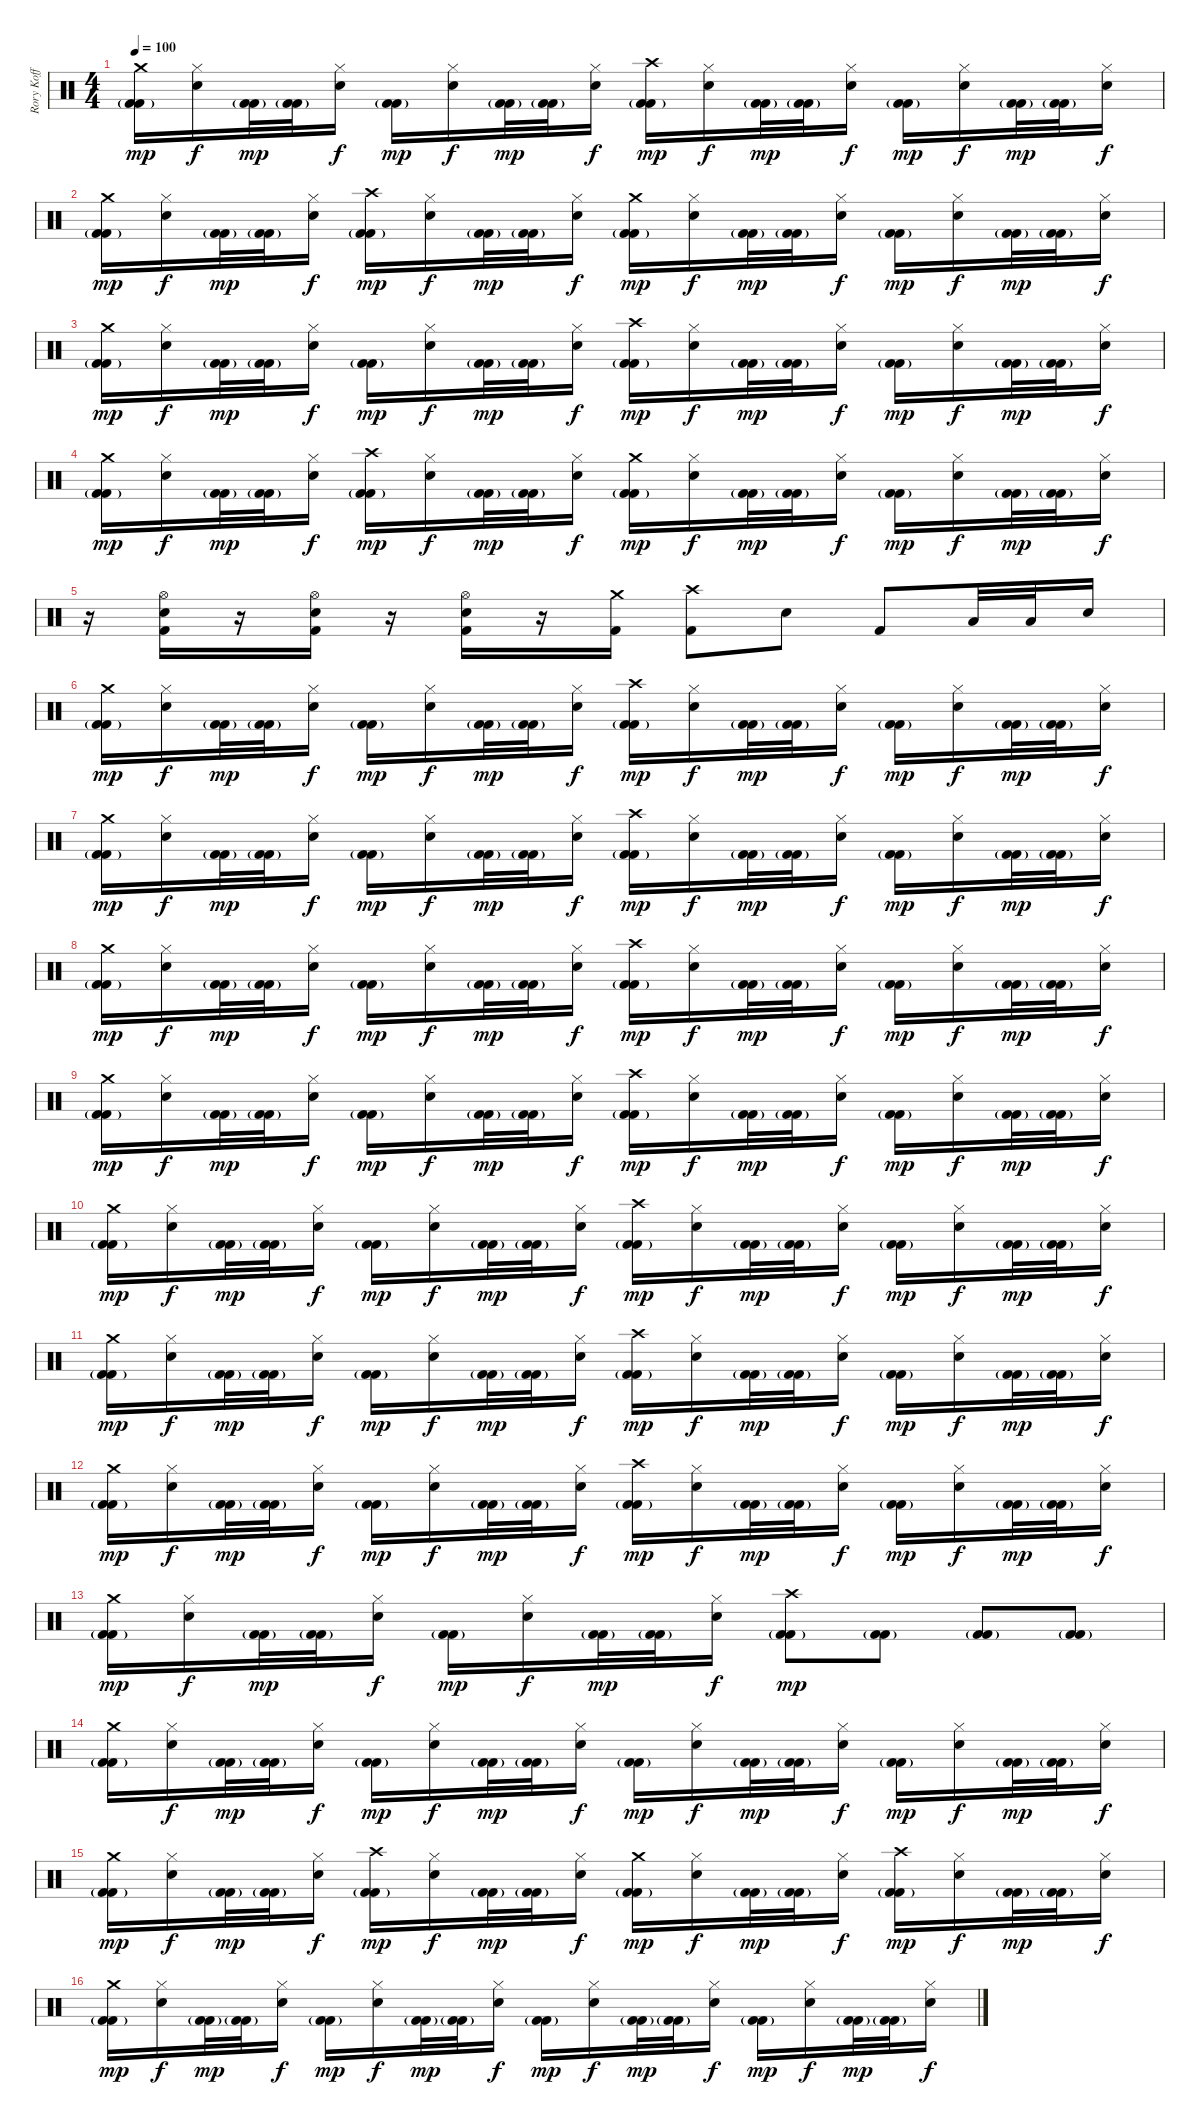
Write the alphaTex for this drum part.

\track ("Rory Koff" "Rory Koff") {instrument percussion}
\staff {score}
\articulation defaults
\ts (4 4)
\tempo 100
\clef neutral
\ks c
("Crash medium (hit)" "Kick (hit) 2"{g} "Kick (hit) 2").16{dy mp} ("Hi-Hat (closed)" "Snare (hit) 2").16{dy f} ("Kick (hit) 2"{g} "Kick (hit) 2").32{dy mp} ("Kick (hit) 2"{g} "Kick (hit) 2").32 ("Hi-Hat (closed)" "Snare (hit) 2").16{dy f} ("Kick (hit) 2"{g} "Kick (hit) 2").16{dy mp} ("Hi-Hat (closed)" "Snare (hit) 2").16{dy f} ("Kick (hit) 2"{g} "Kick (hit) 2").32{dy mp} ("Kick (hit) 2"{g} "Kick (hit) 2").32 ("Hi-Hat (closed)" "Snare (hit) 2").16{dy f} ("Crash high (hit)" "Kick (hit) 2"{g} "Kick (hit) 2").16{dy mp} ("Hi-Hat (closed)" "Snare (hit) 2").16{dy f} ("Kick (hit) 2"{g} "Kick (hit) 2").32{dy mp} ("Kick (hit) 2"{g} "Kick (hit) 2").32 ("Hi-Hat (closed)" "Snare (hit) 2").16{dy f} ("Kick (hit) 2"{g} "Kick (hit) 2").16{dy mp} ("Hi-Hat (closed)" "Snare (hit) 2").16{dy f} ("Kick (hit) 2"{g} "Kick (hit) 2").32{dy mp} ("Kick (hit) 2"{g} "Kick (hit) 2").32 ("Hi-Hat (closed)" "Snare (hit) 2").16{dy f} |
("Crash medium (hit)" "Kick (hit) 2"{g} "Kick (hit) 2").16{dy mp} ("Hi-Hat (closed)" "Snare (hit) 2").16{dy f} ("Kick (hit) 2"{g} "Kick (hit) 2").32{dy mp} ("Kick (hit) 2"{g} "Kick (hit) 2").32 ("Hi-Hat (closed)" "Snare (hit) 2").16{dy f} ("Crash high (hit)" "Kick (hit) 2"{g} "Kick (hit) 2").16{dy mp} ("Hi-Hat (closed)" "Snare (hit) 2").16{dy f} ("Kick (hit) 2"{g} "Kick (hit) 2").32{dy mp} ("Kick (hit) 2"{g} "Kick (hit) 2").32 ("Hi-Hat (closed)" "Snare (hit) 2").16{dy f} ("Crash medium (hit)" "Kick (hit) 2"{g} "Kick (hit) 2").16{dy mp} ("Hi-Hat (closed)" "Snare (hit) 2").16{dy f} ("Kick (hit) 2"{g} "Kick (hit) 2").32{dy mp} ("Kick (hit) 2"{g} "Kick (hit) 2").32 ("Hi-Hat (closed)" "Snare (hit) 2").16{dy f} ("Kick (hit) 2"{g} "Kick (hit) 2").16{dy mp} ("Hi-Hat (closed)" "Snare (hit) 2").16{dy f} ("Kick (hit) 2"{g} "Kick (hit) 2").32{dy mp} ("Kick (hit) 2"{g} "Kick (hit) 2").32 ("Hi-Hat (closed)" "Snare (hit) 2").16{dy f} |
("Crash medium (hit)" "Kick (hit) 2"{g} "Kick (hit) 2").16{dy mp} ("Hi-Hat (closed)" "Snare (hit) 2").16{dy f} ("Kick (hit) 2"{g} "Kick (hit) 2").32{dy mp} ("Kick (hit) 2"{g} "Kick (hit) 2").32 ("Hi-Hat (closed)" "Snare (hit) 2").16{dy f} ("Kick (hit) 2"{g} "Kick (hit) 2").16{dy mp} ("Hi-Hat (closed)" "Snare (hit) 2").16{dy f} ("Kick (hit) 2"{g} "Kick (hit) 2").32{dy mp} ("Kick (hit) 2"{g} "Kick (hit) 2").32 ("Hi-Hat (closed)" "Snare (hit) 2").16{dy f} ("Crash high (hit)" "Kick (hit) 2"{g} "Kick (hit) 2").16{dy mp} ("Hi-Hat (closed)" "Snare (hit) 2").16{dy f} ("Kick (hit) 2"{g} "Kick (hit) 2").32{dy mp} ("Kick (hit) 2"{g} "Kick (hit) 2").32 ("Hi-Hat (closed)" "Snare (hit) 2").16{dy f} ("Kick (hit) 2"{g} "Kick (hit) 2").16{dy mp} ("Hi-Hat (closed)" "Snare (hit) 2").16{dy f} ("Kick (hit) 2"{g} "Kick (hit) 2").32{dy mp} ("Kick (hit) 2"{g} "Kick (hit) 2").32 ("Hi-Hat (closed)" "Snare (hit) 2").16{dy f} |
("Crash medium (hit)" "Kick (hit) 2"{g} "Kick (hit) 2").16{dy mp} ("Hi-Hat (closed)" "Snare (hit) 2").16{dy f} ("Kick (hit) 2"{g} "Kick (hit) 2").32{dy mp} ("Kick (hit) 2"{g} "Kick (hit) 2").32 ("Hi-Hat (closed)" "Snare (hit) 2").16{dy f} ("Crash high (hit)" "Kick (hit) 2"{g} "Kick (hit) 2").16{dy mp} ("Hi-Hat (closed)" "Snare (hit) 2").16{dy f} ("Kick (hit) 2"{g} "Kick (hit) 2").32{dy mp} ("Kick (hit) 2"{g} "Kick (hit) 2").32 ("Hi-Hat (closed)" "Snare (hit) 2").16{dy f} ("Crash medium (hit)" "Kick (hit) 2"{g} "Kick (hit) 2").16{dy mp} ("Hi-Hat (closed)" "Snare (hit) 2").16{dy f} ("Kick (hit) 2"{g} "Kick (hit) 2").32{dy mp} ("Kick (hit) 2"{g} "Kick (hit) 2").32 ("Hi-Hat (closed)" "Snare (hit) 2").16{dy f} ("Kick (hit) 2"{g} "Kick (hit) 2").16{dy mp} ("Hi-Hat (closed)" "Snare (hit) 2").16{dy f} ("Kick (hit) 2"{g} "Kick (hit) 2").32{dy mp} ("Kick (hit) 2"{g} "Kick (hit) 2").32 ("Hi-Hat (closed)" "Snare (hit) 2").16{dy f} |
r.16 ("Hi-Hat (open)" "Snare (hit) 2" "Kick (hit) 2").16 r.16 ("Hi-Hat (open)" "Snare (hit) 2" "Kick (hit) 2").16 r.16 ("Hi-Hat (open)" "Snare (hit) 2" "Kick (hit) 2").16 r.16 ("Crash medium (hit)" "Kick (hit) 2").16 ("Crash high (hit)" "Kick (hit) 2").8 "Snare (hit) 2".8 "Kick (hit) 2".8 "Low Tom (hit)".32 "Low Tom (hit)".32 "Snare (hit) 2".16 |
("Crash medium (hit)" "Kick (hit) 2"{g} "Kick (hit) 2").16{dy mp} ("Hi-Hat (closed)" "Snare (hit) 2").16{dy f} ("Kick (hit) 2"{g} "Kick (hit) 2").32{dy mp} ("Kick (hit) 2"{g} "Kick (hit) 2").32 ("Hi-Hat (closed)" "Snare (hit) 2").16{dy f} ("Kick (hit) 2"{g} "Kick (hit) 2").16{dy mp} ("Hi-Hat (closed)" "Snare (hit) 2").16{dy f} ("Kick (hit) 2"{g} "Kick (hit) 2").32{dy mp} ("Kick (hit) 2"{g} "Kick (hit) 2").32 ("Hi-Hat (closed)" "Snare (hit) 2").16{dy f} ("Crash high (hit)" "Kick (hit) 2"{g} "Kick (hit) 2").16{dy mp} ("Hi-Hat (closed)" "Snare (hit) 2").16{dy f} ("Kick (hit) 2"{g} "Kick (hit) 2").32{dy mp} ("Kick (hit) 2"{g} "Kick (hit) 2").32 ("Hi-Hat (closed)" "Snare (hit) 2").16{dy f} ("Kick (hit) 2"{g} "Kick (hit) 2").16{dy mp} ("Hi-Hat (closed)" "Snare (hit) 2").16{dy f} ("Kick (hit) 2"{g} "Kick (hit) 2").32{dy mp} ("Kick (hit) 2"{g} "Kick (hit) 2").32 ("Hi-Hat (closed)" "Snare (hit) 2").16{dy f} |
("Crash medium (hit)" "Kick (hit) 2"{g} "Kick (hit) 2").16{dy mp} ("Hi-Hat (closed)" "Snare (hit) 2").16{dy f} ("Kick (hit) 2"{g} "Kick (hit) 2").32{dy mp} ("Kick (hit) 2"{g} "Kick (hit) 2").32 ("Hi-Hat (closed)" "Snare (hit) 2").16{dy f} ("Kick (hit) 2"{g} "Kick (hit) 2").16{dy mp} ("Hi-Hat (closed)" "Snare (hit) 2").16{dy f} ("Kick (hit) 2"{g} "Kick (hit) 2").32{dy mp} ("Kick (hit) 2"{g} "Kick (hit) 2").32 ("Hi-Hat (closed)" "Snare (hit) 2").16{dy f} ("Crash high (hit)" "Kick (hit) 2"{g} "Kick (hit) 2").16{dy mp} ("Hi-Hat (closed)" "Snare (hit) 2").16{dy f} ("Kick (hit) 2"{g} "Kick (hit) 2").32{dy mp} ("Kick (hit) 2"{g} "Kick (hit) 2").32 ("Hi-Hat (closed)" "Snare (hit) 2").16{dy f} ("Kick (hit) 2"{g} "Kick (hit) 2").16{dy mp} ("Hi-Hat (closed)" "Snare (hit) 2").16{dy f} ("Kick (hit) 2"{g} "Kick (hit) 2").32{dy mp} ("Kick (hit) 2"{g} "Kick (hit) 2").32 ("Hi-Hat (closed)" "Snare (hit) 2").16{dy f} |
("Crash medium (hit)" "Kick (hit) 2"{g} "Kick (hit) 2").16{dy mp} ("Hi-Hat (closed)" "Snare (hit) 2").16{dy f} ("Kick (hit) 2"{g} "Kick (hit) 2").32{dy mp} ("Kick (hit) 2"{g} "Kick (hit) 2").32 ("Hi-Hat (closed)" "Snare (hit) 2").16{dy f} ("Kick (hit) 2"{g} "Kick (hit) 2").16{dy mp} ("Hi-Hat (closed)" "Snare (hit) 2").16{dy f} ("Kick (hit) 2"{g} "Kick (hit) 2").32{dy mp} ("Kick (hit) 2"{g} "Kick (hit) 2").32 ("Hi-Hat (closed)" "Snare (hit) 2").16{dy f} ("Crash high (hit)" "Kick (hit) 2"{g} "Kick (hit) 2").16{dy mp} ("Hi-Hat (closed)" "Snare (hit) 2").16{dy f} ("Kick (hit) 2"{g} "Kick (hit) 2").32{dy mp} ("Kick (hit) 2"{g} "Kick (hit) 2").32 ("Hi-Hat (closed)" "Snare (hit) 2").16{dy f} ("Kick (hit) 2"{g} "Kick (hit) 2").16{dy mp} ("Hi-Hat (closed)" "Snare (hit) 2").16{dy f} ("Kick (hit) 2"{g} "Kick (hit) 2").32{dy mp} ("Kick (hit) 2"{g} "Kick (hit) 2").32 ("Hi-Hat (closed)" "Snare (hit) 2").16{dy f} |
("Crash medium (hit)" "Kick (hit) 2"{g} "Kick (hit) 2").16{dy mp} ("Hi-Hat (closed)" "Snare (hit) 2").16{dy f} ("Kick (hit) 2"{g} "Kick (hit) 2").32{dy mp} ("Kick (hit) 2"{g} "Kick (hit) 2").32 ("Hi-Hat (closed)" "Snare (hit) 2").16{dy f} ("Kick (hit) 2"{g} "Kick (hit) 2").16{dy mp} ("Hi-Hat (closed)" "Snare (hit) 2").16{dy f} ("Kick (hit) 2"{g} "Kick (hit) 2").32{dy mp} ("Kick (hit) 2"{g} "Kick (hit) 2").32 ("Hi-Hat (closed)" "Snare (hit) 2").16{dy f} ("Crash high (hit)" "Kick (hit) 2"{g} "Kick (hit) 2").16{dy mp} ("Hi-Hat (closed)" "Snare (hit) 2").16{dy f} ("Kick (hit) 2"{g} "Kick (hit) 2").32{dy mp} ("Kick (hit) 2"{g} "Kick (hit) 2").32 ("Hi-Hat (closed)" "Snare (hit) 2").16{dy f} ("Kick (hit) 2"{g} "Kick (hit) 2").16{dy mp} ("Hi-Hat (closed)" "Snare (hit) 2").16{dy f} ("Kick (hit) 2"{g} "Kick (hit) 2").32{dy mp} ("Kick (hit) 2"{g} "Kick (hit) 2").32 ("Hi-Hat (closed)" "Snare (hit) 2").16{dy f} |
("Crash medium (hit)" "Kick (hit) 2"{g} "Kick (hit) 2").16{dy mp} ("Hi-Hat (closed)" "Snare (hit) 2").16{dy f} ("Kick (hit) 2"{g} "Kick (hit) 2").32{dy mp} ("Kick (hit) 2"{g} "Kick (hit) 2").32 ("Hi-Hat (closed)" "Snare (hit) 2").16{dy f} ("Kick (hit) 2"{g} "Kick (hit) 2").16{dy mp} ("Hi-Hat (closed)" "Snare (hit) 2").16{dy f} ("Kick (hit) 2"{g} "Kick (hit) 2").32{dy mp} ("Kick (hit) 2"{g} "Kick (hit) 2").32 ("Hi-Hat (closed)" "Snare (hit) 2").16{dy f} ("Crash high (hit)" "Kick (hit) 2"{g} "Kick (hit) 2").16{dy mp} ("Hi-Hat (closed)" "Snare (hit) 2").16{dy f} ("Kick (hit) 2"{g} "Kick (hit) 2").32{dy mp} ("Kick (hit) 2"{g} "Kick (hit) 2").32 ("Hi-Hat (closed)" "Snare (hit) 2").16{dy f} ("Kick (hit) 2"{g} "Kick (hit) 2").16{dy mp} ("Hi-Hat (closed)" "Snare (hit) 2").16{dy f} ("Kick (hit) 2"{g} "Kick (hit) 2").32{dy mp} ("Kick (hit) 2"{g} "Kick (hit) 2").32 ("Hi-Hat (closed)" "Snare (hit) 2").16{dy f} |
("Crash medium (hit)" "Kick (hit) 2"{g} "Kick (hit) 2").16{dy mp} ("Hi-Hat (closed)" "Snare (hit) 2").16{dy f} ("Kick (hit) 2"{g} "Kick (hit) 2").32{dy mp} ("Kick (hit) 2"{g} "Kick (hit) 2").32 ("Hi-Hat (closed)" "Snare (hit) 2").16{dy f} ("Kick (hit) 2"{g} "Kick (hit) 2").16{dy mp} ("Hi-Hat (closed)" "Snare (hit) 2").16{dy f} ("Kick (hit) 2"{g} "Kick (hit) 2").32{dy mp} ("Kick (hit) 2"{g} "Kick (hit) 2").32 ("Hi-Hat (closed)" "Snare (hit) 2").16{dy f} ("Crash high (hit)" "Kick (hit) 2"{g} "Kick (hit) 2").16{dy mp} ("Hi-Hat (closed)" "Snare (hit) 2").16{dy f} ("Kick (hit) 2"{g} "Kick (hit) 2").32{dy mp} ("Kick (hit) 2"{g} "Kick (hit) 2").32 ("Hi-Hat (closed)" "Snare (hit) 2").16{dy f} ("Kick (hit) 2"{g} "Kick (hit) 2").16{dy mp} ("Hi-Hat (closed)" "Snare (hit) 2").16{dy f} ("Kick (hit) 2"{g} "Kick (hit) 2").32{dy mp} ("Kick (hit) 2"{g} "Kick (hit) 2").32 ("Hi-Hat (closed)" "Snare (hit) 2").16{dy f} |
("Crash medium (hit)" "Kick (hit) 2"{g} "Kick (hit) 2").16{dy mp} ("Hi-Hat (closed)" "Snare (hit) 2").16{dy f} ("Kick (hit) 2"{g} "Kick (hit) 2").32{dy mp} ("Kick (hit) 2"{g} "Kick (hit) 2").32 ("Hi-Hat (closed)" "Snare (hit) 2").16{dy f} ("Kick (hit) 2"{g} "Kick (hit) 2").16{dy mp} ("Hi-Hat (closed)" "Snare (hit) 2").16{dy f} ("Kick (hit) 2"{g} "Kick (hit) 2").32{dy mp} ("Kick (hit) 2"{g} "Kick (hit) 2").32 ("Hi-Hat (closed)" "Snare (hit) 2").16{dy f} ("Crash high (hit)" "Kick (hit) 2"{g} "Kick (hit) 2").16{dy mp} ("Hi-Hat (closed)" "Snare (hit) 2").16{dy f} ("Kick (hit) 2"{g} "Kick (hit) 2").32{dy mp} ("Kick (hit) 2"{g} "Kick (hit) 2").32 ("Hi-Hat (closed)" "Snare (hit) 2").16{dy f} ("Kick (hit) 2"{g} "Kick (hit) 2").16{dy mp} ("Hi-Hat (closed)" "Snare (hit) 2").16{dy f} ("Kick (hit) 2"{g} "Kick (hit) 2").32{dy mp} ("Kick (hit) 2"{g} "Kick (hit) 2").32 ("Hi-Hat (closed)" "Snare (hit) 2").16{dy f} |
("Crash medium (hit)" "Kick (hit) 2"{g} "Kick (hit) 2").16{dy mp} ("Hi-Hat (closed)" "Snare (hit) 2").16{dy f} ("Kick (hit) 2"{g} "Kick (hit) 2").32{dy mp} ("Kick (hit) 2"{g} "Kick (hit) 2").32 ("Hi-Hat (closed)" "Snare (hit) 2").16{dy f} ("Kick (hit) 2"{g} "Kick (hit) 2").16{dy mp} ("Hi-Hat (closed)" "Snare (hit) 2").16{dy f} ("Kick (hit) 2"{g} "Kick (hit) 2").32{dy mp} ("Kick (hit) 2"{g} "Kick (hit) 2").32 ("Hi-Hat (closed)" "Snare (hit) 2").16{dy f} ("Crash high (hit)" "Kick (hit) 2"{g} "Kick (hit) 2").8{dy mp} ("Kick (hit) 2"{g} "Kick (hit) 2").8 ("Kick (hit) 2"{g} "Kick (hit) 2").8 ("Kick (hit) 2"{g} "Kick (hit) 2").8 |
("Crash medium (hit)" "Kick (hit) 2"{g} "Kick (hit) 2").16 ("Hi-Hat (closed)" "Snare (hit) 2").16{dy f} ("Kick (hit) 2"{g} "Kick (hit) 2").32{dy mp} ("Kick (hit) 2"{g} "Kick (hit) 2").32 ("Hi-Hat (closed)" "Snare (hit) 2").16{dy f} ("Kick (hit) 2"{g} "Kick (hit) 2").16{dy mp} ("Hi-Hat (closed)" "Snare (hit) 2").16{dy f} ("Kick (hit) 2"{g} "Kick (hit) 2").32{dy mp} ("Kick (hit) 2"{g} "Kick (hit) 2").32 ("Hi-Hat (closed)" "Snare (hit) 2").16{dy f} ("Kick (hit) 2"{g} "Kick (hit) 2").16{dy mp} ("Hi-Hat (closed)" "Snare (hit) 2").16{dy f} ("Kick (hit) 2"{g} "Kick (hit) 2").32{dy mp} ("Kick (hit) 2"{g} "Kick (hit) 2").32 ("Hi-Hat (closed)" "Snare (hit) 2").16{dy f} ("Kick (hit) 2"{g} "Kick (hit) 2").16{dy mp} ("Hi-Hat (closed)" "Snare (hit) 2").16{dy f} ("Kick (hit) 2"{g} "Kick (hit) 2").32{dy mp} ("Kick (hit) 2"{g} "Kick (hit) 2").32 ("Hi-Hat (closed)" "Snare (hit) 2").16{dy f} |
("Crash medium (hit)" "Kick (hit) 2"{g} "Kick (hit) 2").16{dy mp} ("Hi-Hat (closed)" "Snare (hit) 2").16{dy f} ("Kick (hit) 2"{g} "Kick (hit) 2").32{dy mp} ("Kick (hit) 2"{g} "Kick (hit) 2").32 ("Hi-Hat (closed)" "Snare (hit) 2").16{dy f} ("Crash high (hit)" "Kick (hit) 2"{g} "Kick (hit) 2").16{dy mp} ("Hi-Hat (closed)" "Snare (hit) 2").16{dy f} ("Kick (hit) 2"{g} "Kick (hit) 2").32{dy mp} ("Kick (hit) 2"{g} "Kick (hit) 2").32 ("Hi-Hat (closed)" "Snare (hit) 2").16{dy f} ("Crash medium (hit)" "Kick (hit) 2"{g} "Kick (hit) 2").16{dy mp} ("Hi-Hat (closed)" "Snare (hit) 2").16{dy f} ("Kick (hit) 2"{g} "Kick (hit) 2").32{dy mp} ("Kick (hit) 2"{g} "Kick (hit) 2").32 ("Hi-Hat (closed)" "Snare (hit) 2").16{dy f} ("Crash high (hit)" "Kick (hit) 2"{g} "Kick (hit) 2").16{dy mp} ("Hi-Hat (closed)" "Snare (hit) 2").16{dy f} ("Kick (hit) 2"{g} "Kick (hit) 2").32{dy mp} ("Kick (hit) 2"{g} "Kick (hit) 2").32 ("Hi-Hat (closed)" "Snare (hit) 2").16{dy f} |
("Crash medium (hit)" "Kick (hit) 2"{g} "Kick (hit) 2").16{dy mp} ("Hi-Hat (closed)" "Snare (hit) 2").16{dy f} ("Kick (hit) 2"{g} "Kick (hit) 2").32{dy mp} ("Kick (hit) 2"{g} "Kick (hit) 2").32 ("Hi-Hat (closed)" "Snare (hit) 2").16{dy f} ("Kick (hit) 2"{g} "Kick (hit) 2").16{dy mp} ("Hi-Hat (closed)" "Snare (hit) 2").16{dy f} ("Kick (hit) 2"{g} "Kick (hit) 2").32{dy mp} ("Kick (hit) 2"{g} "Kick (hit) 2").32 ("Hi-Hat (closed)" "Snare (hit) 2").16{dy f} ("Kick (hit) 2"{g} "Kick (hit) 2").16{dy mp} ("Hi-Hat (closed)" "Snare (hit) 2").16{dy f} ("Kick (hit) 2"{g} "Kick (hit) 2").32{dy mp} ("Kick (hit) 2"{g} "Kick (hit) 2").32 ("Hi-Hat (closed)" "Snare (hit) 2").16{dy f} ("Kick (hit) 2"{g} "Kick (hit) 2").16{dy mp} ("Hi-Hat (closed)" "Snare (hit) 2").16{dy f} ("Kick (hit) 2"{g} "Kick (hit) 2").32{dy mp} ("Kick (hit) 2"{g} "Kick (hit) 2").32 ("Hi-Hat (closed)" "Snare (hit) 2").16{dy f}
